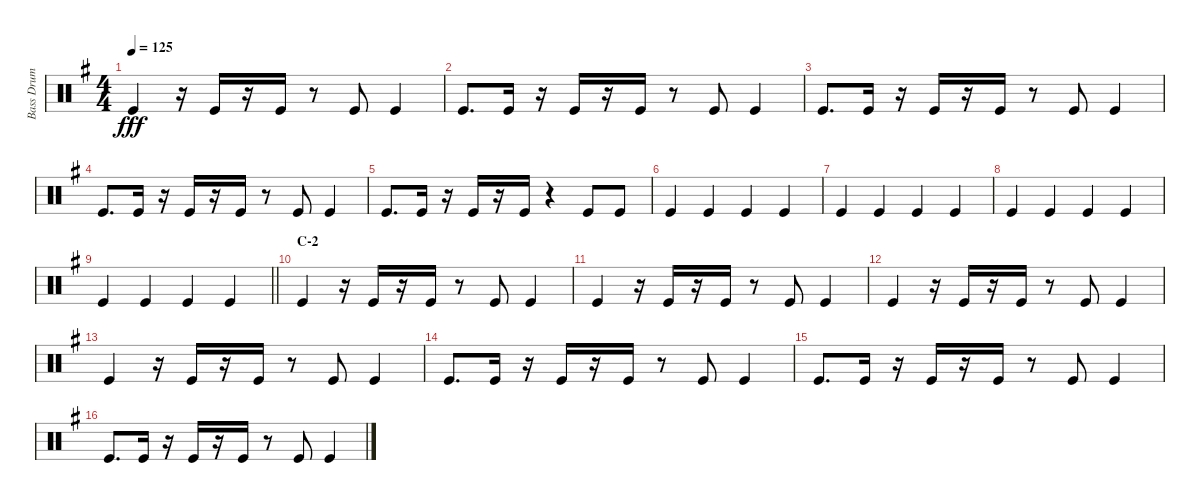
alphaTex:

\track ("Bass Drum" "Bass Drum") {instrument percussion}
\staff {score}
\articulation defaults
\ts (4 4)
\tempo 125
\clef neutral
\ks g "Kick (hit)".4{dy fff}
r.16 "Kick (hit)".16 r.16 "Kick (hit)".16 r.8 "Kick (hit)".8 "Kick (hit)".4 |
"Kick (hit)".8{d} "Kick (hit)".16 r.16 "Kick (hit)".16 r.16 "Kick (hit)".16 r.8 "Kick (hit)".8 "Kick (hit)".4 |
"Kick (hit)".8{d} "Kick (hit)".16 r.16 "Kick (hit)".16 r.16 "Kick (hit)".16 r.8 "Kick (hit)".8 "Kick (hit)".4 |
"Kick (hit)".8{d} "Kick (hit)".16 r.16 "Kick (hit)".16 r.16 "Kick (hit)".16 r.8 "Kick (hit)".8 "Kick (hit)".4 |
"Kick (hit)".8{d} "Kick (hit)".16 r.16 "Kick (hit)".16 r.16 "Kick (hit)".16 r.4 "Kick (hit)".8 "Kick (hit)".8 |
"Kick (hit)".4 "Kick (hit)".4 "Kick (hit)".4 "Kick (hit)".4 |
"Kick (hit)".4 "Kick (hit)".4 "Kick (hit)".4 "Kick (hit)".4 |
"Kick (hit)".4 "Kick (hit)".4 "Kick (hit)".4 "Kick (hit)".4 |
\barLineRight lightlight "Kick (hit)".4 "Kick (hit)".4 "Kick (hit)".4 "Kick (hit)".4
|
\section ("" "C-2")
"Kick (hit)".4 r.16 "Kick (hit)".16 r.16 "Kick (hit)".16 r.8 "Kick (hit)".8 "Kick (hit)".4 |
"Kick (hit)".4 r.16 "Kick (hit)".16 r.16 "Kick (hit)".16 r.8 "Kick (hit)".8 "Kick (hit)".4 |
"Kick (hit)".4 r.16 "Kick (hit)".16 r.16 "Kick (hit)".16 r.8 "Kick (hit)".8 "Kick (hit)".4 |
"Kick (hit)".4 r.16 "Kick (hit)".16 r.16 "Kick (hit)".16 r.8 "Kick (hit)".8 "Kick (hit)".4 |
"Kick (hit)".8{d} "Kick (hit)".16 r.16 "Kick (hit)".16 r.16 "Kick (hit)".16 r.8 "Kick (hit)".8 "Kick (hit)".4 |
"Kick (hit)".8{d} "Kick (hit)".16 r.16 "Kick (hit)".16 r.16 "Kick (hit)".16 r.8 "Kick (hit)".8 "Kick (hit)".4 |
"Kick (hit)".8{d} "Kick (hit)".16 r.16 "Kick (hit)".16 r.16 "Kick (hit)".16 r.8 "Kick (hit)".8 "Kick (hit)".4
